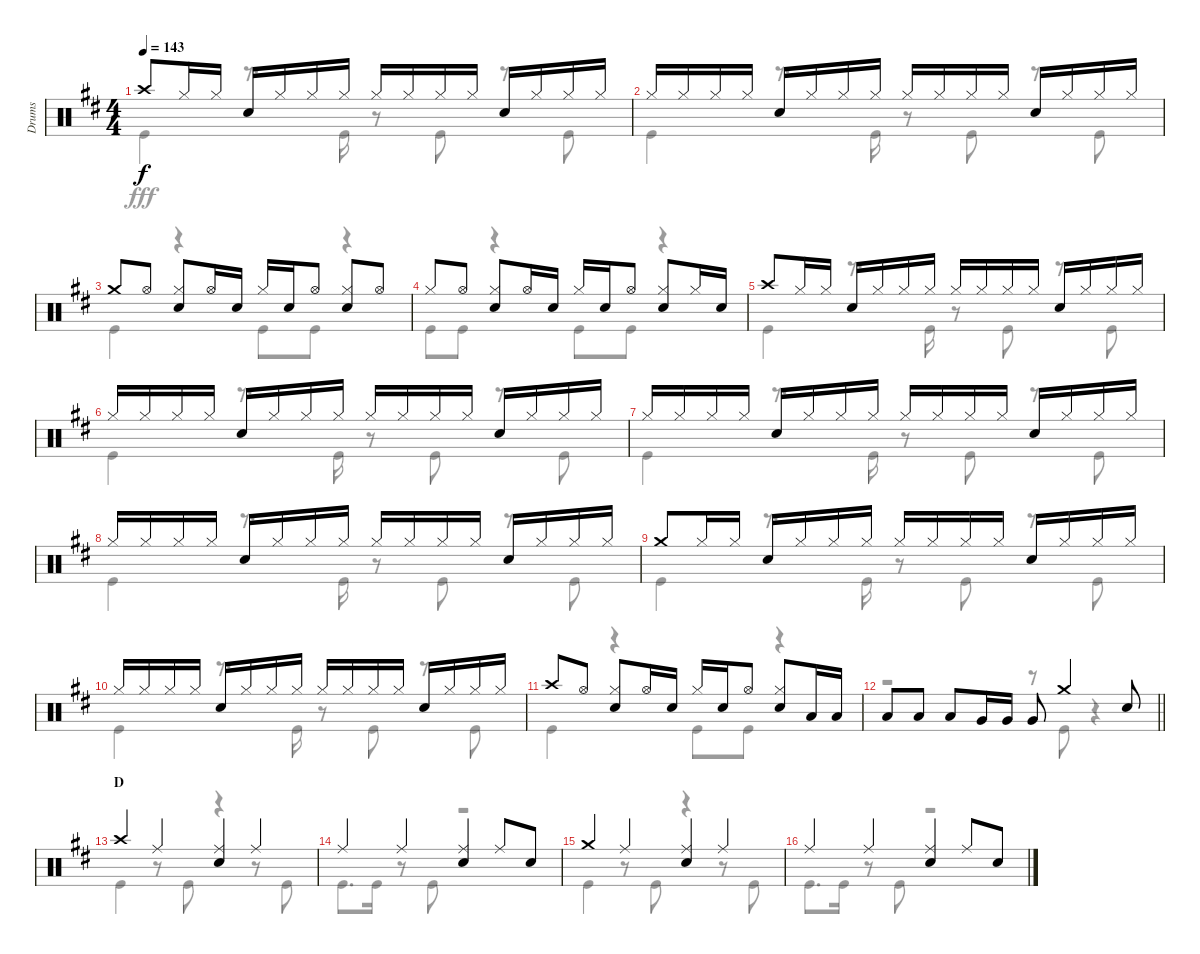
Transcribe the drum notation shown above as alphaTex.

\track ("Drums" "Drums") {instrument percussion}
\staff {score}
\articulation defaults
\voice
\ts (4 4)
\tempo 143
\clef neutral
\ks d "Crash high (hit)".8{dy f} "Hi-Hat (closed)".16 "Hi-Hat (closed)".16 "Snare (hit) 2".16 "Hi-Hat (closed)".16 "Hi-Hat (closed)".16 "Hi-Hat (closed)".16 "Hi-Hat (closed)".16 "Hi-Hat (closed)".16 "Hi-Hat (closed)".16 "Hi-Hat (closed)".16 "Snare (hit) 2".16 "Hi-Hat (closed)".16 "Hi-Hat (closed)".16 "Hi-Hat (closed)".16
|
"Hi-Hat (closed)".16 "Hi-Hat (closed)".16 "Hi-Hat (closed)".16 "Hi-Hat (closed)".16 "Snare (hit) 2".16 "Hi-Hat (closed)".16 "Hi-Hat (closed)".16 "Hi-Hat (closed)".16 "Hi-Hat (closed)".16 "Hi-Hat (closed)".16 "Hi-Hat (closed)".16 "Hi-Hat (closed)".16 "Snare (hit) 2".16 "Hi-Hat (closed)".16 "Hi-Hat (closed)".16 "Hi-Hat (closed)".16 |
"Crash medium (hit)".8 "Hi-Hat (open)".8 ("Hi-Hat (closed)" "Snare (hit) 2").8 "Hi-Hat (open)".16 "Snare (hit) 2".16 "Hi-Hat (closed)".16 "Snare (hit) 2".16 "Hi-Hat (open)".8 ("Hi-Hat (closed)" "Snare (hit) 2").8 "Hi-Hat (open)".8 |
"Hi-Hat (closed)".8 "Hi-Hat (open)".8 ("Hi-Hat (closed)" "Snare (hit) 2").8 "Hi-Hat (open)".16 "Snare (hit) 2".16 "Hi-Hat (closed)".16 "Snare (hit) 2".16 "Hi-Hat (open)".8 ("Hi-Hat (closed)" "Snare (hit) 2").8 "Hi-Hat (closed)".16 "Snare (hit) 2".16 |
"Crash high (hit)".8 "Hi-Hat (closed)".16 "Hi-Hat (closed)".16 "Snare (hit) 2".16 "Hi-Hat (closed)".16 "Hi-Hat (closed)".16 "Hi-Hat (closed)".16 "Hi-Hat (closed)".16 "Hi-Hat (closed)".16 "Hi-Hat (closed)".16 "Hi-Hat (closed)".16 "Snare (hit) 2".16 "Hi-Hat (closed)".16 "Hi-Hat (closed)".16 "Hi-Hat (closed)".16 |
"Hi-Hat (closed)".16 "Hi-Hat (closed)".16 "Hi-Hat (closed)".16 "Hi-Hat (closed)".16 "Snare (hit) 2".16 "Hi-Hat (closed)".16 "Hi-Hat (closed)".16 "Hi-Hat (closed)".16 "Hi-Hat (closed)".16 "Hi-Hat (closed)".16 "Hi-Hat (closed)".16 "Hi-Hat (closed)".16 "Snare (hit) 2".16 "Hi-Hat (closed)".16 "Hi-Hat (closed)".16 "Hi-Hat (closed)".16 |
"Hi-Hat (closed)".16 "Hi-Hat (closed)".16 "Hi-Hat (closed)".16 "Hi-Hat (closed)".16 "Snare (hit) 2".16 "Hi-Hat (closed)".16 "Hi-Hat (closed)".16 "Hi-Hat (closed)".16 "Hi-Hat (closed)".16 "Hi-Hat (closed)".16 "Hi-Hat (closed)".16 "Hi-Hat (closed)".16 "Snare (hit) 2".16 "Hi-Hat (closed)".16 "Hi-Hat (closed)".16 "Hi-Hat (closed)".16 |
"Hi-Hat (closed)".16 "Hi-Hat (closed)".16 "Hi-Hat (closed)".16 "Hi-Hat (closed)".16 "Snare (hit) 2".16 "Hi-Hat (closed)".16 "Hi-Hat (closed)".16 "Hi-Hat (closed)".16 "Hi-Hat (closed)".16 "Hi-Hat (closed)".16 "Hi-Hat (closed)".16 "Hi-Hat (closed)".16 "Snare (hit) 2".16 "Hi-Hat (closed)".16 "Hi-Hat (closed)".16 "Hi-Hat (closed)".16 |
"Crash medium (hit)".8 "Hi-Hat (closed)".16 "Hi-Hat (closed)".16 "Snare (hit) 2".16 "Hi-Hat (closed)".16 "Hi-Hat (closed)".16 "Hi-Hat (closed)".16 "Hi-Hat (closed)".16 "Hi-Hat (closed)".16 "Hi-Hat (closed)".16 "Hi-Hat (closed)".16 "Snare (hit) 2".16 "Hi-Hat (closed)".16 "Hi-Hat (closed)".16 "Hi-Hat (closed)".16 |
"Hi-Hat (closed)".16 "Hi-Hat (closed)".16 "Hi-Hat (closed)".16 "Hi-Hat (closed)".16 "Snare (hit) 2".16 "Hi-Hat (closed)".16 "Hi-Hat (closed)".16 "Hi-Hat (closed)".16 "Hi-Hat (closed)".16 "Hi-Hat (closed)".16 "Hi-Hat (closed)".16 "Hi-Hat (closed)".16 "Snare (hit) 2".16 "Hi-Hat (closed)".16 "Hi-Hat (closed)".16 "Hi-Hat (closed)".16 |
"Crash high (hit)".8 "Hi-Hat (open)".8 ("Hi-Hat (closed)" "Snare (hit) 2").8 "Hi-Hat (open)".16 "Snare (hit) 2".16 "Hi-Hat (closed)".16 "Snare (hit) 2".16 "Hi-Hat (open)".8 ("Hi-Hat (closed)" "Snare (hit) 2").8 "Low Tom (hit)".16 "Low Tom (hit)".16 |
\barLineRight lightlight "Low Tom (hit)".8 "Low Tom (hit)".8 "Low Tom (hit)".8 "Very Low Tom (hit)".16 "Very Low Tom (hit)".16 "Very Low Tom (hit)".8 "Crash medium (hit)".4 "Snare (hit) 2".8
|
\section ("" "D")
"Crash high (hit)".4 "Ride (middle)".4 ("Ride (middle)" "Snare (hit) 2").4 "Ride (middle)".4 |
"Ride (middle)".4 "Ride (middle)".4 ("Ride (middle)" "Snare (hit) 2").4 "Ride (middle)".8 "Snare (hit) 2".8 |
"Crash medium (hit)".4 "Ride (middle)".4 ("Ride (middle)" "Snare (hit) 2").4 "Ride (middle)".4 |
"Ride (middle)".4 "Ride (middle)".4 ("Ride (middle)" "Snare (hit) 2").4 "Ride (middle)".8 "Snare (hit) 2".8
\voice
\clef neutral
\ottava regular
\simile none
\ks d "Kick (hit)".4{dy fff}
r.8{d} "Kick (hit)".16 r.8 "Kick (hit)".8 r.8 "Kick (hit)".8 |
"Kick (hit)".4 r.8{d} "Kick (hit)".16 r.8 "Kick (hit)".8 r.8 "Kick (hit)".8 |
"Kick (hit)".4 r.4 "Kick (hit)".8 "Kick (hit)".8 r.4 |
"Kick (hit)".8 "Kick (hit)".8 r.4 "Kick (hit)".8 "Kick (hit)".8 r.4 |
"Kick (hit)".4 r.8{d} "Kick (hit)".16 r.8 "Kick (hit)".8 r.8 "Kick (hit)".8 |
"Kick (hit)".4 r.8{d} "Kick (hit)".16 r.8 "Kick (hit)".8 r.8 "Kick (hit)".8 |
"Kick (hit)".4 r.8{d} "Kick (hit)".16 r.8 "Kick (hit)".8 r.8 "Kick (hit)".8 |
"Kick (hit)".4 r.8{d} "Kick (hit)".16 r.8 "Kick (hit)".8 r.8 "Kick (hit)".8 |
"Kick (hit)".4 r.8{d} "Kick (hit)".16 r.8 "Kick (hit)".8 r.8 "Kick (hit)".8 |
"Kick (hit)".4 r.8{d} "Kick (hit)".16 r.8 "Kick (hit)".8 r.8 "Kick (hit)".8 |
"Kick (hit)".4 r.4 "Kick (hit)".8 "Kick (hit)".8 r.4 |
\barLineRight lightlight
r.2 r.8 "Kick (hit)".8 r.4 |
"Kick (hit)".4 r.8 "Kick (hit)".8 r.4 r.8 "Kick (hit)".8 |
"Kick (hit)".8{d} "Kick (hit)".16 r.8 "Kick (hit)".8 r.2 |
"Kick (hit)".4 r.8 "Kick (hit)".8 r.4 r.8 "Kick (hit)".8 |
"Kick (hit)".8{d} "Kick (hit)".16 r.8 "Kick (hit)".8 r.2
